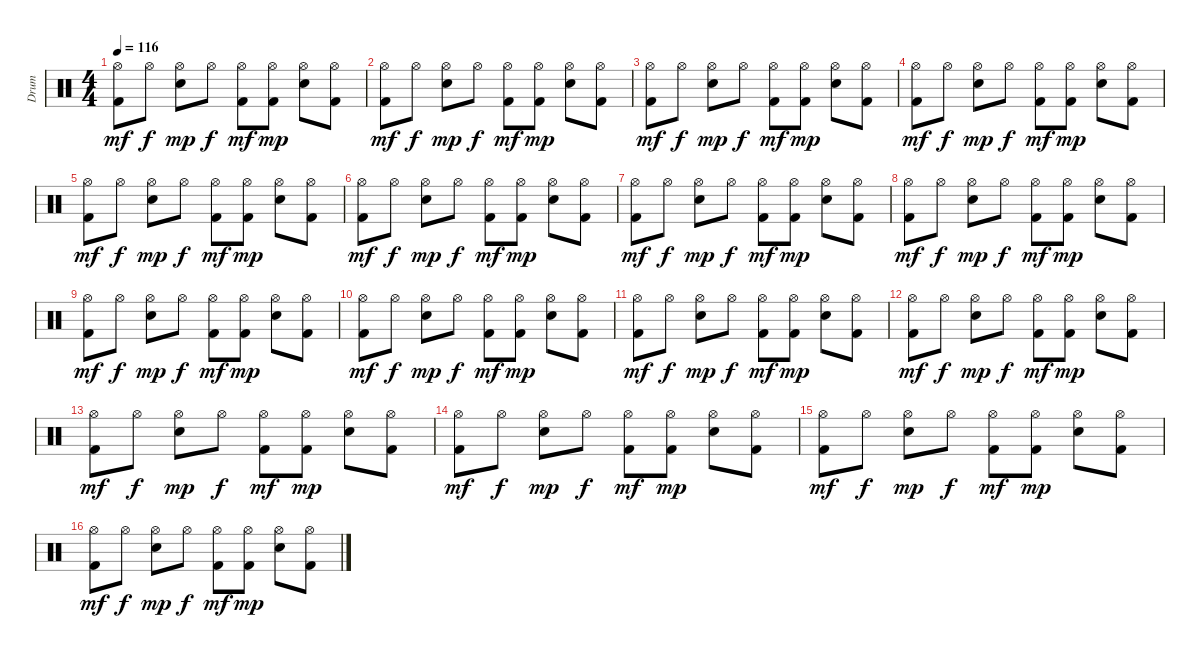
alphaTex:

\track ("Drum" "Drum") {instrument percussion}
\staff {score}
\articulation defaults
\ts (4 4)
\tempo 116
\clef neutral
\ks c
("Kick (hit) 2" "Hi-Hat (open)").8{dy mf} "Hi-Hat (open)".8{dy f} ("Snare (hit) 2" "Hi-Hat (open)").8{dy mp} "Hi-Hat (open)".8{dy f} ("Kick (hit) 2" "Hi-Hat (open)").8{dy mf} ("Kick (hit) 2" "Hi-Hat (open)").8{dy mp} ("Snare (hit) 2" "Hi-Hat (open)").8 ("Kick (hit) 2" "Hi-Hat (open)").8 |
("Kick (hit) 2" "Hi-Hat (open)").8{dy mf} "Hi-Hat (open)".8{dy f} ("Snare (hit) 2" "Hi-Hat (open)").8{dy mp} "Hi-Hat (open)".8{dy f} ("Kick (hit) 2" "Hi-Hat (open)").8{dy mf} ("Kick (hit) 2" "Hi-Hat (open)").8{dy mp} ("Snare (hit) 2" "Hi-Hat (open)").8 ("Kick (hit) 2" "Hi-Hat (open)").8 |
("Kick (hit) 2" "Hi-Hat (open)").8{dy mf} "Hi-Hat (open)".8{dy f} ("Snare (hit) 2" "Hi-Hat (open)").8{dy mp} "Hi-Hat (open)".8{dy f} ("Kick (hit) 2" "Hi-Hat (open)").8{dy mf} ("Kick (hit) 2" "Hi-Hat (open)").8{dy mp} ("Snare (hit) 2" "Hi-Hat (open)").8 ("Kick (hit) 2" "Hi-Hat (open)").8 |
("Kick (hit) 2" "Hi-Hat (open)").8{dy mf} "Hi-Hat (open)".8{dy f} ("Snare (hit) 2" "Hi-Hat (open)").8{dy mp} "Hi-Hat (open)".8{dy f} ("Kick (hit) 2" "Hi-Hat (open)").8{dy mf} ("Kick (hit) 2" "Hi-Hat (open)").8{dy mp} ("Snare (hit) 2" "Hi-Hat (open)").8 ("Kick (hit) 2" "Hi-Hat (open)").8 |
("Kick (hit) 2" "Hi-Hat (open)").8{dy mf} "Hi-Hat (open)".8{dy f} ("Snare (hit) 2" "Hi-Hat (open)").8{dy mp} "Hi-Hat (open)".8{dy f} ("Kick (hit) 2" "Hi-Hat (open)").8{dy mf} ("Kick (hit) 2" "Hi-Hat (open)").8{dy mp} ("Snare (hit) 2" "Hi-Hat (open)").8 ("Kick (hit) 2" "Hi-Hat (open)").8 |
("Kick (hit) 2" "Hi-Hat (open)").8{dy mf} "Hi-Hat (open)".8{dy f} ("Snare (hit) 2" "Hi-Hat (open)").8{dy mp} "Hi-Hat (open)".8{dy f} ("Kick (hit) 2" "Hi-Hat (open)").8{dy mf} ("Kick (hit) 2" "Hi-Hat (open)").8{dy mp} ("Snare (hit) 2" "Hi-Hat (open)").8 ("Kick (hit) 2" "Hi-Hat (open)").8 |
("Kick (hit) 2" "Hi-Hat (open)").8{dy mf} "Hi-Hat (open)".8{dy f} ("Snare (hit) 2" "Hi-Hat (open)").8{dy mp} "Hi-Hat (open)".8{dy f} ("Kick (hit) 2" "Hi-Hat (open)").8{dy mf} ("Kick (hit) 2" "Hi-Hat (open)").8{dy mp} ("Snare (hit) 2" "Hi-Hat (open)").8 ("Kick (hit) 2" "Hi-Hat (open)").8 |
("Kick (hit) 2" "Hi-Hat (open)").8{dy mf} "Hi-Hat (open)".8{dy f} ("Snare (hit) 2" "Hi-Hat (open)").8{dy mp} "Hi-Hat (open)".8{dy f} ("Kick (hit) 2" "Hi-Hat (open)").8{dy mf} ("Kick (hit) 2" "Hi-Hat (open)").8{dy mp} ("Snare (hit) 2" "Hi-Hat (open)").8 ("Kick (hit) 2" "Hi-Hat (open)").8 |
("Kick (hit) 2" "Hi-Hat (open)").8{dy mf} "Hi-Hat (open)".8{dy f} ("Snare (hit) 2" "Hi-Hat (open)").8{dy mp} "Hi-Hat (open)".8{dy f} ("Kick (hit) 2" "Hi-Hat (open)").8{dy mf} ("Kick (hit) 2" "Hi-Hat (open)").8{dy mp} ("Snare (hit) 2" "Hi-Hat (open)").8 ("Kick (hit) 2" "Hi-Hat (open)").8 |
("Kick (hit) 2" "Hi-Hat (open)").8{dy mf} "Hi-Hat (open)".8{dy f} ("Snare (hit) 2" "Hi-Hat (open)").8{dy mp} "Hi-Hat (open)".8{dy f} ("Kick (hit) 2" "Hi-Hat (open)").8{dy mf} ("Kick (hit) 2" "Hi-Hat (open)").8{dy mp} ("Snare (hit) 2" "Hi-Hat (open)").8 ("Kick (hit) 2" "Hi-Hat (open)").8 |
("Kick (hit) 2" "Hi-Hat (open)").8{dy mf} "Hi-Hat (open)".8{dy f} ("Snare (hit) 2" "Hi-Hat (open)").8{dy mp} "Hi-Hat (open)".8{dy f} ("Kick (hit) 2" "Hi-Hat (open)").8{dy mf} ("Kick (hit) 2" "Hi-Hat (open)").8{dy mp} ("Snare (hit) 2" "Hi-Hat (open)").8 ("Kick (hit) 2" "Hi-Hat (open)").8 |
("Kick (hit) 2" "Hi-Hat (open)").8{dy mf} "Hi-Hat (open)".8{dy f} ("Snare (hit) 2" "Hi-Hat (open)").8{dy mp} "Hi-Hat (open)".8{dy f} ("Kick (hit) 2" "Hi-Hat (open)").8{dy mf} ("Kick (hit) 2" "Hi-Hat (open)").8{dy mp} ("Snare (hit) 2" "Hi-Hat (open)").8 ("Kick (hit) 2" "Hi-Hat (open)").8 |
("Kick (hit) 2" "Hi-Hat (open)").8{dy mf} "Hi-Hat (open)".8{dy f} ("Snare (hit) 2" "Hi-Hat (open)").8{dy mp} "Hi-Hat (open)".8{dy f} ("Kick (hit) 2" "Hi-Hat (open)").8{dy mf} ("Kick (hit) 2" "Hi-Hat (open)").8{dy mp} ("Snare (hit) 2" "Hi-Hat (open)").8 ("Kick (hit) 2" "Hi-Hat (open)").8 |
("Kick (hit) 2" "Hi-Hat (open)").8{dy mf} "Hi-Hat (open)".8{dy f} ("Snare (hit) 2" "Hi-Hat (open)").8{dy mp} "Hi-Hat (open)".8{dy f} ("Kick (hit) 2" "Hi-Hat (open)").8{dy mf} ("Kick (hit) 2" "Hi-Hat (open)").8{dy mp} ("Snare (hit) 2" "Hi-Hat (open)").8 ("Kick (hit) 2" "Hi-Hat (open)").8 |
("Kick (hit) 2" "Hi-Hat (open)").8{dy mf} "Hi-Hat (open)".8{dy f} ("Snare (hit) 2" "Hi-Hat (open)").8{dy mp} "Hi-Hat (open)".8{dy f} ("Kick (hit) 2" "Hi-Hat (open)").8{dy mf} ("Kick (hit) 2" "Hi-Hat (open)").8{dy mp} ("Snare (hit) 2" "Hi-Hat (open)").8 ("Kick (hit) 2" "Hi-Hat (open)").8 |
("Kick (hit) 2" "Hi-Hat (open)").8{dy mf} "Hi-Hat (open)".8{dy f} ("Snare (hit) 2" "Hi-Hat (open)").8{dy mp} "Hi-Hat (open)".8{dy f} ("Kick (hit) 2" "Hi-Hat (open)").8{dy mf} ("Kick (hit) 2" "Hi-Hat (open)").8{dy mp} ("Snare (hit) 2" "Hi-Hat (open)").8 ("Kick (hit) 2" "Hi-Hat (open)").8
